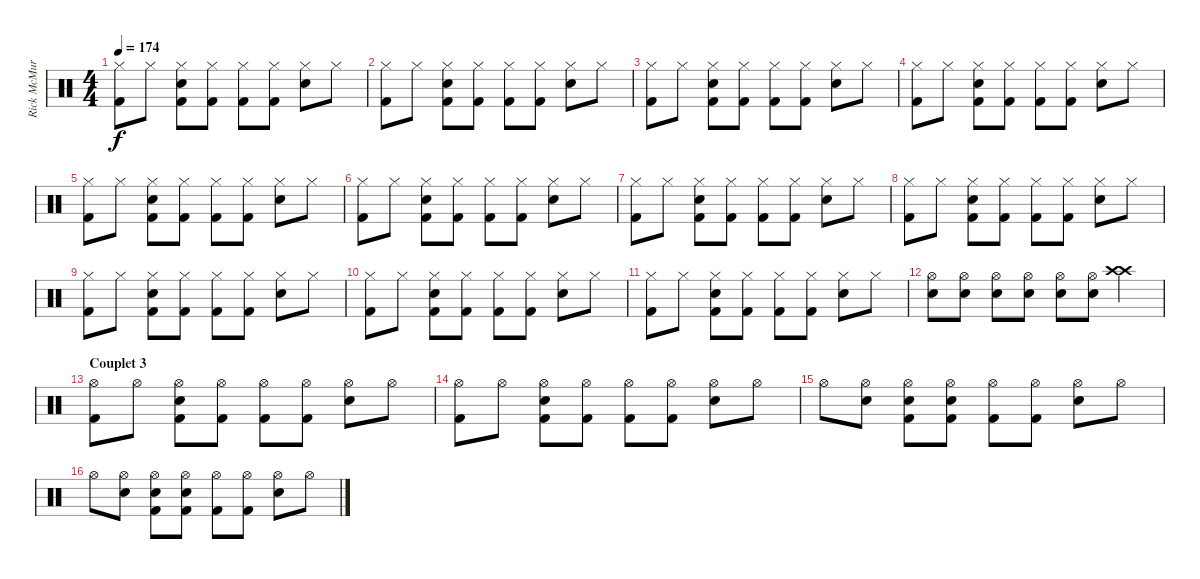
\track ("Rick McMurray" "Rick McMur") {instrument percussion}
\staff {score}
\articulation defaults
\ts (4 4)
\tempo 174
\clef neutral
\ks c
("Hi-Hat (closed)" "Kick (hit) 2").8{dy f} "Hi-Hat (closed)".8 ("Hi-Hat (closed)" "Snare (hit) 2" "Kick (hit) 2").8 ("Hi-Hat (closed)" "Kick (hit) 2").8 ("Hi-Hat (closed)" "Kick (hit) 2").8 ("Hi-Hat (closed)" "Kick (hit) 2").8 ("Hi-Hat (closed)" "Snare (hit) 2").8 "Hi-Hat (closed)".8 |
("Hi-Hat (closed)" "Kick (hit) 2").8 "Hi-Hat (closed)".8 ("Hi-Hat (closed)" "Snare (hit) 2" "Kick (hit) 2").8 ("Hi-Hat (closed)" "Kick (hit) 2").8 ("Hi-Hat (closed)" "Kick (hit) 2").8 ("Hi-Hat (closed)" "Kick (hit) 2").8 ("Hi-Hat (closed)" "Snare (hit) 2").8 "Hi-Hat (closed)".8 |
("Hi-Hat (closed)" "Kick (hit) 2").8 "Hi-Hat (closed)".8 ("Hi-Hat (closed)" "Snare (hit) 2" "Kick (hit) 2").8 ("Hi-Hat (closed)" "Kick (hit) 2").8 ("Hi-Hat (closed)" "Kick (hit) 2").8 ("Hi-Hat (closed)" "Kick (hit) 2").8 ("Hi-Hat (closed)" "Snare (hit) 2").8 "Hi-Hat (closed)".8 |
("Hi-Hat (closed)" "Kick (hit) 2").8 "Hi-Hat (closed)".8 ("Hi-Hat (closed)" "Snare (hit) 2" "Kick (hit) 2").8 ("Hi-Hat (closed)" "Kick (hit) 2").8 ("Hi-Hat (closed)" "Kick (hit) 2").8 ("Hi-Hat (closed)" "Kick (hit) 2").8 ("Hi-Hat (closed)" "Snare (hit) 2").8 "Hi-Hat (closed)".8 |
("Hi-Hat (closed)" "Kick (hit) 2").8 "Hi-Hat (closed)".8 ("Hi-Hat (closed)" "Snare (hit) 2" "Kick (hit) 2").8 ("Hi-Hat (closed)" "Kick (hit) 2").8 ("Hi-Hat (closed)" "Kick (hit) 2").8 ("Hi-Hat (closed)" "Kick (hit) 2").8 ("Hi-Hat (closed)" "Snare (hit) 2").8 "Hi-Hat (closed)".8 |
("Hi-Hat (closed)" "Kick (hit) 2").8 "Hi-Hat (closed)".8 ("Hi-Hat (closed)" "Snare (hit) 2" "Kick (hit) 2").8 ("Hi-Hat (closed)" "Kick (hit) 2").8 ("Hi-Hat (closed)" "Kick (hit) 2").8 ("Hi-Hat (closed)" "Kick (hit) 2").8 ("Hi-Hat (closed)" "Snare (hit) 2").8 "Hi-Hat (closed)".8 |
("Hi-Hat (closed)" "Kick (hit) 2").8 "Hi-Hat (closed)".8 ("Hi-Hat (closed)" "Snare (hit) 2" "Kick (hit) 2").8 ("Hi-Hat (closed)" "Kick (hit) 2").8 ("Hi-Hat (closed)" "Kick (hit) 2").8 ("Hi-Hat (closed)" "Kick (hit) 2").8 ("Hi-Hat (closed)" "Snare (hit) 2").8 "Hi-Hat (closed)".8 |
("Hi-Hat (closed)" "Kick (hit) 2").8 "Hi-Hat (closed)".8 ("Hi-Hat (closed)" "Snare (hit) 2" "Kick (hit) 2").8 ("Hi-Hat (closed)" "Kick (hit) 2").8 ("Hi-Hat (closed)" "Kick (hit) 2").8 ("Hi-Hat (closed)" "Kick (hit) 2").8 ("Hi-Hat (closed)" "Snare (hit) 2").8 "Hi-Hat (closed)".8 |
("Hi-Hat (closed)" "Kick (hit) 2").8 "Hi-Hat (closed)".8 ("Hi-Hat (closed)" "Snare (hit) 2" "Kick (hit) 2").8 ("Hi-Hat (closed)" "Kick (hit) 2").8 ("Hi-Hat (closed)" "Kick (hit) 2").8 ("Hi-Hat (closed)" "Kick (hit) 2").8 ("Hi-Hat (closed)" "Snare (hit) 2").8 "Hi-Hat (closed)".8 |
("Hi-Hat (closed)" "Kick (hit) 2").8 "Hi-Hat (closed)".8 ("Hi-Hat (closed)" "Snare (hit) 2" "Kick (hit) 2").8 ("Hi-Hat (closed)" "Kick (hit) 2").8 ("Hi-Hat (closed)" "Kick (hit) 2").8 ("Hi-Hat (closed)" "Kick (hit) 2").8 ("Hi-Hat (closed)" "Snare (hit) 2").8 "Hi-Hat (closed)".8 |
("Hi-Hat (closed)" "Kick (hit) 2").8 "Hi-Hat (closed)".8 ("Hi-Hat (closed)" "Snare (hit) 2" "Kick (hit) 2").8 ("Hi-Hat (closed)" "Kick (hit) 2").8 ("Hi-Hat (closed)" "Kick (hit) 2").8 ("Hi-Hat (closed)" "Kick (hit) 2").8 ("Hi-Hat (closed)" "Snare (hit) 2").8 "Hi-Hat (closed)".8 |
("Hi-Hat (open)" "Snare (hit) 2").8 ("Hi-Hat (open)" "Snare (hit) 2").8 ("Hi-Hat (open)" "Snare (hit) 2").8 ("Hi-Hat (open)" "Snare (hit) 2").8 ("Hi-Hat (open)" "Snare (hit) 2").8 ("Hi-Hat (open)" "Snare (hit) 2").8 ("Crash high (hit)" "Crash high (hit)").4 |
\section ("" "Couplet 3")
("Hi-Hat (open)" "Kick (hit) 2").8 "Hi-Hat (open)".8 ("Hi-Hat (open)" "Snare (hit) 2" "Kick (hit) 2").8 ("Hi-Hat (open)" "Kick (hit) 2").8 ("Hi-Hat (open)" "Kick (hit) 2").8 ("Hi-Hat (open)" "Kick (hit) 2").8 ("Hi-Hat (open)" "Snare (hit) 2").8 "Hi-Hat (open)".8 |
("Hi-Hat (open)" "Kick (hit) 2").8 "Hi-Hat (open)".8 ("Hi-Hat (open)" "Snare (hit) 2" "Kick (hit) 2").8 ("Hi-Hat (open)" "Kick (hit) 2").8 ("Hi-Hat (open)" "Kick (hit) 2").8 ("Hi-Hat (open)" "Kick (hit) 2").8 ("Hi-Hat (open)" "Snare (hit) 2").8 "Hi-Hat (open)".8 |
"Hi-Hat (open)".8 ("Hi-Hat (open)" "Snare (hit) 2").8 ("Hi-Hat (open)" "Snare (hit) 2" "Kick (hit) 2").8 ("Hi-Hat (open)" "Snare (hit) 2" "Kick (hit) 2").8 ("Hi-Hat (open)" "Kick (hit) 2").8 ("Hi-Hat (open)" "Kick (hit) 2").8 ("Hi-Hat (open)" "Snare (hit) 2").8 "Hi-Hat (open)".8 |
"Hi-Hat (open)".8 ("Hi-Hat (open)" "Snare (hit) 2").8 ("Hi-Hat (open)" "Snare (hit) 2" "Kick (hit) 2").8 ("Hi-Hat (open)" "Snare (hit) 2" "Kick (hit) 2").8 ("Hi-Hat (open)" "Kick (hit) 2").8 ("Hi-Hat (open)" "Kick (hit) 2").8 ("Hi-Hat (open)" "Snare (hit) 2").8 "Hi-Hat (open)".8
